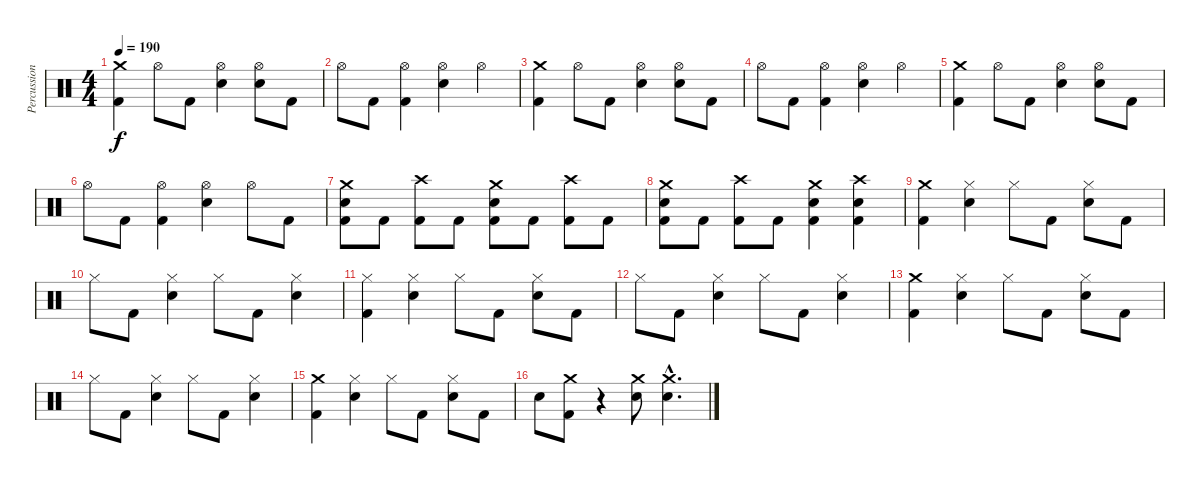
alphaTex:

\track ("Percussion" "Percussion") {instrument percussion}
\staff {score}
\articulation defaults
\ts (4 4)
\tempo 190
\clef neutral
\ks c
("Crash medium (hit)" "Kick (hit) 2").4{dy f} "Hi-Hat (open)".8 "Kick (hit) 2".8 ("Hi-Hat (open)" "Snare (hit) 2").4 ("Hi-Hat (open)" "Snare (hit) 2").8 "Kick (hit) 2".8 |
"Hi-Hat (open)".8 "Kick (hit) 2".8 ("Hi-Hat (open)" "Kick (hit) 2").4 ("Hi-Hat (open)" "Snare (hit) 2").4 "Hi-Hat (open)".4 |
("Crash medium (hit)" "Kick (hit) 2").4 "Hi-Hat (open)".8 "Kick (hit) 2".8 ("Hi-Hat (open)" "Snare (hit) 2").4 ("Hi-Hat (open)" "Snare (hit) 2").8 "Kick (hit) 2".8 |
"Hi-Hat (open)".8 "Kick (hit) 2".8 ("Hi-Hat (open)" "Kick (hit) 2").4 ("Hi-Hat (open)" "Snare (hit) 2").4 "Hi-Hat (open)".4 |
("Crash medium (hit)" "Kick (hit) 2").4 "Hi-Hat (open)".8 "Kick (hit) 2".8 ("Hi-Hat (open)" "Snare (hit) 2").4 ("Hi-Hat (open)" "Snare (hit) 2").8 "Kick (hit) 2".8 |
"Hi-Hat (open)".8 "Kick (hit) 2".8 ("Hi-Hat (open)" "Kick (hit) 2").4 ("Hi-Hat (open)" "Snare (hit) 2").4 "Hi-Hat (open)".8 "Kick (hit) 2".8 |
("Crash medium (hit)" "Snare (hit) 2" "Kick (hit) 2").8 "Kick (hit) 2".8 ("Crash high (hit)" "Kick (hit) 2").8 "Kick (hit) 2".8 ("Crash medium (hit)" "Snare (hit) 2" "Kick (hit) 2").8 "Kick (hit) 2".8 ("Crash high (hit)" "Kick (hit) 2").8 "Kick (hit) 2".8 |
("Crash medium (hit)" "Snare (hit) 2" "Kick (hit) 2").8 "Kick (hit) 2".8 ("Crash high (hit)" "Kick (hit) 2").8 "Kick (hit) 2".8 ("Crash medium (hit)" "Snare (hit) 2" "Kick (hit) 2").4 ("Crash high (hit)" "Snare (hit) 2" "Kick (hit) 2").4 |
("Crash medium (hit)" "Kick (hit) 2").4 ("Hi-Hat (closed)" "Snare (hit) 2").4 "Hi-Hat (closed)".8 "Kick (hit) 2".8 ("Hi-Hat (closed)" "Snare (hit) 2").8 "Kick (hit) 2".8 |
"Hi-Hat (closed)".8 "Kick (hit) 2".8 ("Hi-Hat (closed)" "Snare (hit) 2").4 "Hi-Hat (closed)".8 "Kick (hit) 2".8 ("Hi-Hat (closed)" "Snare (hit) 2").4 |
("Hi-Hat (closed)" "Kick (hit) 2").4 ("Hi-Hat (closed)" "Snare (hit) 2").4 "Hi-Hat (closed)".8 "Kick (hit) 2".8 ("Hi-Hat (closed)" "Snare (hit) 2").8 "Kick (hit) 2".8 |
"Hi-Hat (closed)".8 "Kick (hit) 2".8 ("Hi-Hat (closed)" "Snare (hit) 2").4 "Hi-Hat (closed)".8 "Kick (hit) 2".8 ("Hi-Hat (closed)" "Snare (hit) 2").4 |
("Crash medium (hit)" "Kick (hit) 2").4 ("Hi-Hat (closed)" "Snare (hit) 2").4 "Hi-Hat (closed)".8 "Kick (hit) 2".8 ("Hi-Hat (closed)" "Snare (hit) 2").8 "Kick (hit) 2".8 |
"Hi-Hat (closed)".8 "Kick (hit) 2".8 ("Hi-Hat (closed)" "Snare (hit) 2").4 "Hi-Hat (closed)".8 "Kick (hit) 2".8 ("Hi-Hat (closed)" "Snare (hit) 2").4 |
("Crash medium (hit)" "Kick (hit) 2").4 ("Hi-Hat (closed)" "Snare (hit) 2").4 "Hi-Hat (closed)".8 "Kick (hit) 2".8 ("Hi-Hat (closed)" "Snare (hit) 2").8 "Kick (hit) 2".8 |
"Snare (hit) 2".8 ("Crash medium (hit)" "Kick (hit) 2").8 r.4 ("Crash medium (hit)" "Snare (hit) 2").8 ("Crash medium (hit)"{hac} "Snare (hit) 2"{hac}).4{d}
